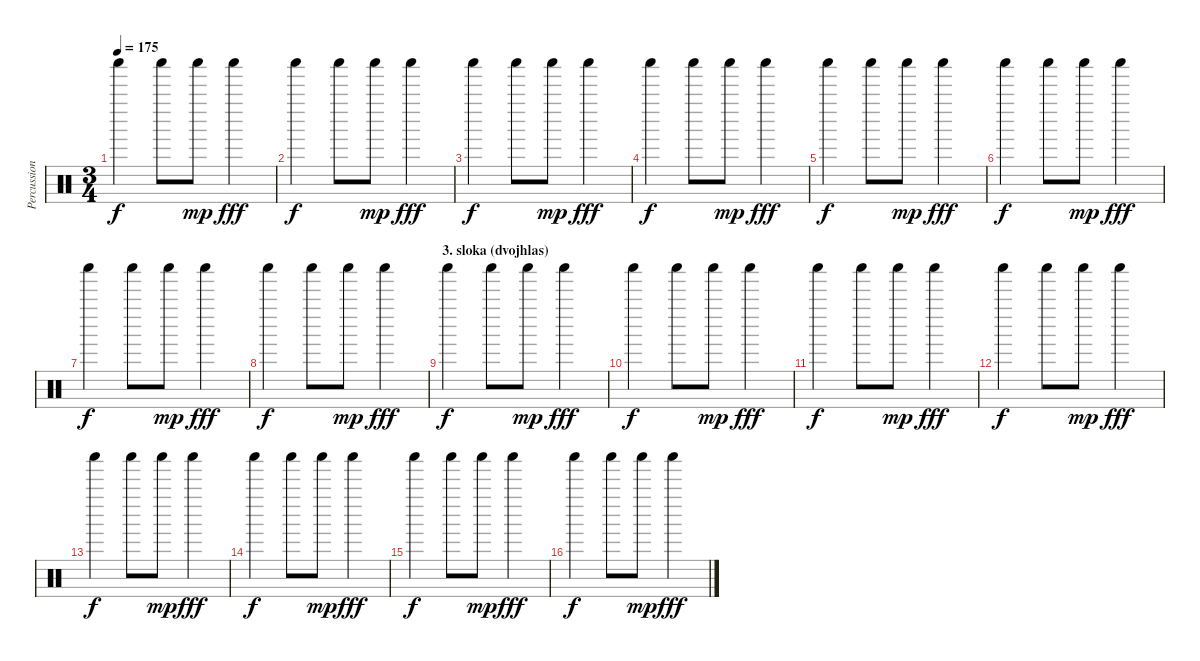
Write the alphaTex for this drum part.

\track ("Percussion" "Percussion") {instrument percussion}
\staff {score}
\articulation defaults
\ts (3 4)
\tempo 175
\clef neutral
\ks c "Shaker (hit)".4{dy f} "Shaker (hit)".8 "Shaker (hit)".8{dy mp} "Shaker (hit)".4{dy fff}
|
"Shaker (hit)".4{dy f} "Shaker (hit)".8 "Shaker (hit)".8{dy mp} "Shaker (hit)".4{dy fff} |
"Shaker (hit)".4{dy f} "Shaker (hit)".8 "Shaker (hit)".8{dy mp} "Shaker (hit)".4{dy fff} |
"Shaker (hit)".4{dy f} "Shaker (hit)".8 "Shaker (hit)".8{dy mp} "Shaker (hit)".4{dy fff} |
"Shaker (hit)".4{dy f} "Shaker (hit)".8 "Shaker (hit)".8{dy mp} "Shaker (hit)".4{dy fff} |
"Shaker (hit)".4{dy f} "Shaker (hit)".8 "Shaker (hit)".8{dy mp} "Shaker (hit)".4{dy fff} |
"Shaker (hit)".4{dy f} "Shaker (hit)".8 "Shaker (hit)".8{dy mp} "Shaker (hit)".4{dy fff} |
"Shaker (hit)".4{dy f} "Shaker (hit)".8 "Shaker (hit)".8{dy mp} "Shaker (hit)".4{dy fff} |
\section ("" "3. sloka (dvojhlas)")
"Shaker (hit)".4{dy f} "Shaker (hit)".8 "Shaker (hit)".8{dy mp} "Shaker (hit)".4{dy fff} |
"Shaker (hit)".4{dy f} "Shaker (hit)".8 "Shaker (hit)".8{dy mp} "Shaker (hit)".4{dy fff} |
"Shaker (hit)".4{dy f} "Shaker (hit)".8 "Shaker (hit)".8{dy mp} "Shaker (hit)".4{dy fff} |
"Shaker (hit)".4{dy f} "Shaker (hit)".8 "Shaker (hit)".8{dy mp} "Shaker (hit)".4{dy fff} |
"Shaker (hit)".4{dy f} "Shaker (hit)".8 "Shaker (hit)".8{dy mp} "Shaker (hit)".4{dy fff} |
"Shaker (hit)".4{dy f} "Shaker (hit)".8 "Shaker (hit)".8{dy mp} "Shaker (hit)".4{dy fff} |
"Shaker (hit)".4{dy f} "Shaker (hit)".8 "Shaker (hit)".8{dy mp} "Shaker (hit)".4{dy fff} |
"Shaker (hit)".4{dy f} "Shaker (hit)".8 "Shaker (hit)".8{dy mp} "Shaker (hit)".4{dy fff}
